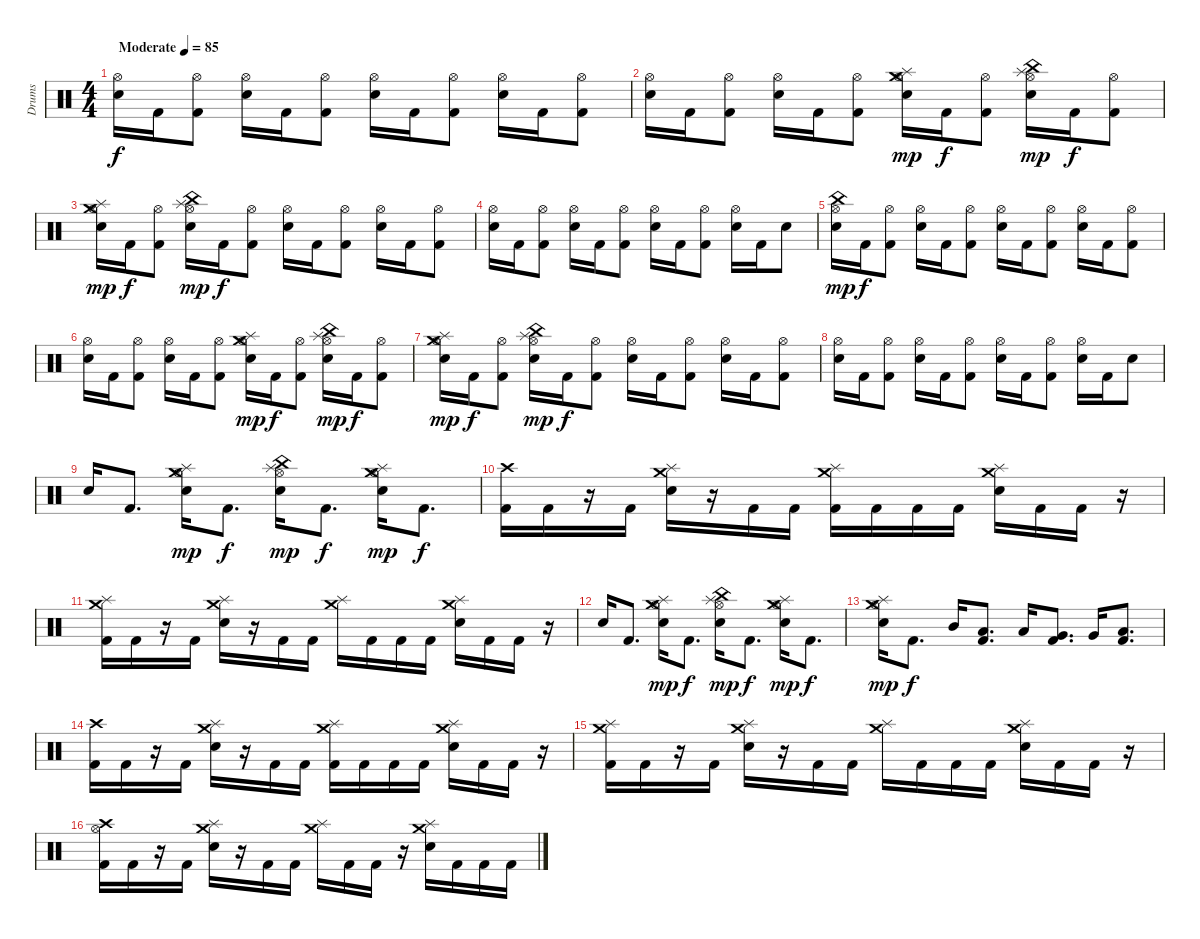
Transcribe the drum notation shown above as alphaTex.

\track ("Drums" "Drums") {instrument percussion}
\staff {score}
\articulation defaults
\ts (4 4)
\tempo (85 "Moderate")
\clef neutral
\ks c
("Hi-Hat (open)" "Electric Snare (hit)").16{dy f} "Kick (hit) 2".16 ("Hi-Hat (open)" "Kick (hit) 2").8 ("Hi-Hat (open)" "Electric Snare (hit)").16 "Kick (hit) 2".16 ("Hi-Hat (open)" "Kick (hit) 2").8 ("Hi-Hat (open)" "Electric Snare (hit)").16 "Kick (hit) 2".16 ("Hi-Hat (open)" "Kick (hit) 2").8 ("Hi-Hat (open)" "Electric Snare (hit)").16 "Kick (hit) 2".16 ("Hi-Hat (open)" "Kick (hit) 2").8 |
("Hi-Hat (open)" "Electric Snare (hit)").16 "Kick (hit) 2".16 ("Hi-Hat (open)" "Kick (hit) 2").8 ("Hi-Hat (open)" "Electric Snare (hit)").16 "Kick (hit) 2".16 ("Hi-Hat (open)" "Kick (hit) 2").8 ("Splash (hit)" "Hi-Hat (open)" "Crash medium (hit)" "Electric Snare (hit)").16{dy mp} "Kick (hit) 2".16{dy f} ("Hi-Hat (open)" "Kick (hit) 2").8 ("Splash (hit)" "Hi-Hat (open)" "China (hit)" "Electric Snare (hit)").16{dy mp} "Kick (hit) 2".16{dy f} ("Hi-Hat (open)" "Kick (hit) 2").8 |
("Splash (hit)" "Hi-Hat (open)" "Crash medium (hit)" "Electric Snare (hit)").16{dy mp} "Kick (hit) 2".16{dy f} ("Hi-Hat (open)" "Kick (hit) 2").8 ("Splash (hit)" "Hi-Hat (open)" "China (hit)" "Electric Snare (hit)").16{dy mp} "Kick (hit) 2".16{dy f} ("Hi-Hat (open)" "Kick (hit) 2").8 ("Hi-Hat (open)" "Electric Snare (hit)").16 "Kick (hit) 2".16 ("Hi-Hat (open)" "Kick (hit) 2").8 ("Hi-Hat (open)" "Electric Snare (hit)").16 "Kick (hit) 2".16 ("Hi-Hat (open)" "Kick (hit) 2").8 |
("Hi-Hat (open)" "Electric Snare (hit)").16 "Kick (hit) 2".16 ("Hi-Hat (open)" "Kick (hit) 2").8 ("Hi-Hat (open)" "Electric Snare (hit)").16 "Kick (hit) 2".16 ("Hi-Hat (open)" "Kick (hit) 2").8 ("Hi-Hat (open)" "Electric Snare (hit)").16 "Kick (hit) 2".16 ("Hi-Hat (open)" "Kick (hit) 2").8 ("Hi-Hat (open)" "Electric Snare (hit)").16 "Kick (hit) 2".16 "Electric Snare (hit)".8 |
("Hi-Hat (open)" "China (hit)" "Electric Snare (hit)").16{dy mp} "Kick (hit) 2".16{dy f} ("Hi-Hat (open)" "Kick (hit) 2").8 ("Hi-Hat (open)" "Electric Snare (hit)").16 "Kick (hit) 2".16 ("Hi-Hat (open)" "Kick (hit) 2").8 ("Hi-Hat (open)" "Electric Snare (hit)").16 "Kick (hit) 2".16 ("Hi-Hat (open)" "Kick (hit) 2").8 ("Hi-Hat (open)" "Electric Snare (hit)").16 "Kick (hit) 2".16 ("Hi-Hat (open)" "Kick (hit) 2").8 |
("Hi-Hat (open)" "Electric Snare (hit)").16 "Kick (hit) 2".16 ("Hi-Hat (open)" "Kick (hit) 2").8 ("Hi-Hat (open)" "Electric Snare (hit)").16 "Kick (hit) 2".16 ("Hi-Hat (open)" "Kick (hit) 2").8 ("Hi-Hat (open)" "Splash (hit)" "Crash medium (hit)" "Electric Snare (hit)").16{dy mp} "Kick (hit) 2".16{dy f} ("Hi-Hat (open)" "Kick (hit) 2").8 ("Hi-Hat (open)" "Splash (hit)" "China (hit)" "Electric Snare (hit)").16{dy mp} "Kick (hit) 2".16{dy f} ("Hi-Hat (open)" "Kick (hit) 2").8 |
("Hi-Hat (open)" "Splash (hit)" "Crash medium (hit)" "Electric Snare (hit)").16{dy mp} "Kick (hit) 2".16{dy f} ("Hi-Hat (open)" "Kick (hit) 2").8 ("Hi-Hat (open)" "Splash (hit)" "China (hit)" "Electric Snare (hit)").16{dy mp} "Kick (hit) 2".16{dy f} ("Hi-Hat (open)" "Kick (hit) 2").8 ("Hi-Hat (open)" "Electric Snare (hit)").16 "Kick (hit) 2".16 ("Hi-Hat (open)" "Kick (hit) 2").8 ("Hi-Hat (open)" "Electric Snare (hit)").16 "Kick (hit) 2".16 ("Hi-Hat (open)" "Kick (hit) 2").8 |
("Hi-Hat (open)" "Electric Snare (hit)").16 "Kick (hit) 2".16 ("Hi-Hat (open)" "Kick (hit) 2").8 ("Hi-Hat (open)" "Electric Snare (hit)").16 "Kick (hit) 2".16 ("Hi-Hat (open)" "Kick (hit) 2").8 ("Hi-Hat (open)" "Electric Snare (hit)").16 "Kick (hit) 2".16 ("Hi-Hat (open)" "Kick (hit) 2").8 ("Hi-Hat (open)" "Electric Snare (hit)").16 "Kick (hit) 2".16 "Electric Snare (hit)".8 |
"Electric Snare (hit)".16 "Kick (hit) 2".8{d} ("Crash medium (hit)" "Splash (hit)" "Hi-Hat (open)" "Electric Snare (hit)").16{dy mp} "Kick (hit) 2".8{d dy f} ("China (hit)" "Splash (hit)" "Hi-Hat (open)" "Electric Snare (hit)").16{dy mp} "Kick (hit) 2".8{d dy f} ("Crash medium (hit)" "Splash (hit)" "Hi-Hat (open)" "Electric Snare (hit)").16{dy mp} "Kick (hit) 2".8{d dy f} |
("Crash high (hit)" "Kick (hit) 2").16 "Kick (hit) 2".16 r.16 "Kick (hit) 2".16 ("Crash medium (hit)" "Splash (hit)" "Electric Snare (hit)").16 r.16 "Kick (hit) 2".16 "Kick (hit) 2".16 ("Crash medium (hit)" "Splash (hit)" "Kick (hit) 2").16 "Kick (hit) 2".16 "Kick (hit) 2".16 "Kick (hit) 2".16 ("Crash medium (hit)" "Splash (hit)" "Electric Snare (hit)").16 "Kick (hit) 2".16 "Kick (hit) 2".16 r.16 |
("Crash medium (hit)" "Splash (hit)" "Kick (hit) 2").16 "Kick (hit) 2".16 r.16 "Kick (hit) 2".16 ("Crash medium (hit)" "Splash (hit)" "Electric Snare (hit)").16 r.16 "Kick (hit) 2".16 "Kick (hit) 2".16 ("Crash medium (hit)" "Splash (hit)").16 "Kick (hit) 2".16 "Kick (hit) 2".16 "Kick (hit) 2".16 ("Crash medium (hit)" "Splash (hit)" "Electric Snare (hit)").16 "Kick (hit) 2".16 "Kick (hit) 2".16 r.16 |
"Electric Snare (hit)".16 "Kick (hit) 2".8{d} ("Crash medium (hit)" "Splash (hit)" "Hi-Hat (open)" "Electric Snare (hit)").16{dy mp} "Kick (hit) 2".8{d dy f} ("China (hit)" "Splash (hit)" "Hi-Hat (open)" "Electric Snare (hit)").16{dy mp} "Kick (hit) 2".8{d dy f} ("Crash medium (hit)" "Splash (hit)" "Hi-Hat (open)" "Electric Snare (hit)").16{dy mp} "Kick (hit) 2".8{d dy f} |
("Hi-Hat (open)" "Crash medium (hit)" "Splash (hit)" "Electric Snare (hit)").16{dy mp} "Kick (hit) 2".8{d dy f} "Mid Tom (hit)".16 ("Kick (hit) 2" "Low Tom (hit)").8{d} "Low Tom (hit)".16 ("Kick (hit) 2" "Very Low Tom (hit)").8{d} "Very Low Tom (hit)".16 ("Kick (hit) 2" "Low Floor Tom (hit)").8{d} |
("Crash high (hit)" "Kick (hit) 2").16 "Kick (hit) 2".16 r.16 "Kick (hit) 2".16 ("Crash medium (hit)" "Splash (hit)" "Electric Snare (hit)").16 r.16 "Kick (hit) 2".16 "Kick (hit) 2".16 ("Crash medium (hit)" "Splash (hit)" "Kick (hit) 2").16 "Kick (hit) 2".16 "Kick (hit) 2".16 "Kick (hit) 2".16 ("Crash medium (hit)" "Splash (hit)" "Electric Snare (hit)").16 "Kick (hit) 2".16 "Kick (hit) 2".16 r.16 |
("Crash medium (hit)" "Splash (hit)" "Kick (hit) 2").16 "Kick (hit) 2".16 r.16 "Kick (hit) 2".16 ("Crash medium (hit)" "Splash (hit)" "Electric Snare (hit)").16 r.16 "Kick (hit) 2".16 "Kick (hit) 2".16 ("Crash medium (hit)" "Splash (hit)").16 "Kick (hit) 2".16 "Kick (hit) 2".16 "Kick (hit) 2".16 ("Crash medium (hit)" "Splash (hit)" "Electric Snare (hit)").16 "Kick (hit) 2".16 "Kick (hit) 2".16 r.16 |
("Hi-Hat (open)" "Crash high (hit)" "Kick (hit) 2").16 "Kick (hit) 2".16 r.16 "Kick (hit) 2".16 ("Crash medium (hit)" "Splash (hit)" "Electric Snare (hit)").16 r.16 "Kick (hit) 2".16 "Kick (hit) 2".16 ("Crash medium (hit)" "Splash (hit)").16 "Kick (hit) 2".16 "Kick (hit) 2".16 r.16 ("Crash medium (hit)" "Splash (hit)" "Electric Snare (hit)").16 "Kick (hit) 2".16 "Kick (hit) 2".16 "Kick (hit) 2".16
